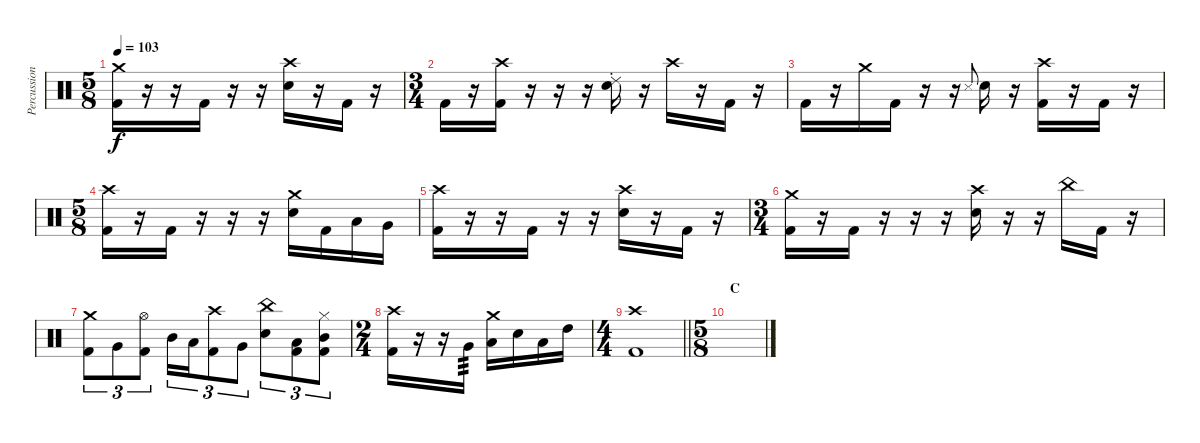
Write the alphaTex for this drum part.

\track ("Percussion" "Percussion") {instrument percussion}
\staff {score}
\articulation defaults
\ts (5 8)
\tempo 103
\clef neutral
\ks c
("Crash medium (hit)" "Kick (hit) 2").16{dy f} r.16 r.16 "Kick (hit) 2".16 r.16 r.16 ("Crash high (hit)" "Snare (hit) 2").16 r.16 "Kick (hit) 2".16 r.16 |
\ts (3 4)
"Kick (hit) 2".16 r.16 ("Crash high (hit)" "Kick (hit) 2").16 r.16 r.16 r.16 ("Ride (choke) 2" "Snare (hit) 2").16 r.16 "Crash high (hit)".16 r.16 "Kick (hit) 2".16 r.16 |
"Kick (hit) 2".16 r.16 "Crash medium (hit)".16 "Kick (hit) 2".16 r.16 r.16 "Metronome (hit)".8{gr onbeat} "Snare (hit) 2".16 r.16 ("Crash high (hit)" "Kick (hit) 2").16 r.16 "Kick (hit) 2".16 r.16 |
\ts (5 8)
("Crash high (hit)" "Kick (hit) 2").16 r.16 "Kick (hit) 2".16 r.16 r.16 r.16 ("Crash medium (hit)" "Snare (hit) 2").16 "Kick (hit) 2".16 "Low Tom (hit)".16 "Very Low Tom (hit)".16 |
("Crash high (hit)" "Kick (hit) 2").16 r.16 r.16 "Kick (hit) 2".16 r.16 r.16 ("Crash high (hit)" "Snare (hit) 2").16 r.16 "Kick (hit) 2".16 r.16 |
\ts (3 4)
("Crash medium (hit)" "Kick (hit) 2").16 r.16 "Kick (hit) 2".16 r.16 r.16 r.16 ("Crash high (hit)" "Snare (hit) 2").16 r.16 r.16 "China (hit)".16 "Kick (hit) 2".16 r.16 |
("Crash medium (hit)" "Kick (hit) 2").8{tu (3 2)} "Very Low Tom (hit)".8{tu (3 2)} ("Hi-Hat (open)" "Kick (hit) 2").8{tu (3 2)} "Mid Tom (hit)".16{tu (3 2)} "Low Tom (hit)".16{tu (3 2)} ("Crash high (hit)" "Kick (hit) 2").8{tu (3 2)} "Very Low Tom (hit)".8{tu (3 2)} ("China (hit)" "Snare (hit) 2").8{tu (3 2)} ("Low Tom (hit)" "Kick (hit) 2").8{tu (3 2)} ("Hi-Hat (closed)" "Mid Tom (hit)" "Kick (hit) 2").8{tu (3 2)} |
\ts (2 4)
("Crash high (hit)" "Kick (hit) 2").16 r.16 r.16 "Very Low Tom (hit)".16{tp 3} ("Crash medium (hit)" "Low Floor Tom (hit)").16 "Snare (hit) 2".16 "Low Tom (hit)".16 "High Tom (hit)".16 |
\ts (4 4)
\barLineRight lightlight
("Crash high (hit)" "Kick (hit) 2").1 |
\ts (5 8)
\section ("" "C")
